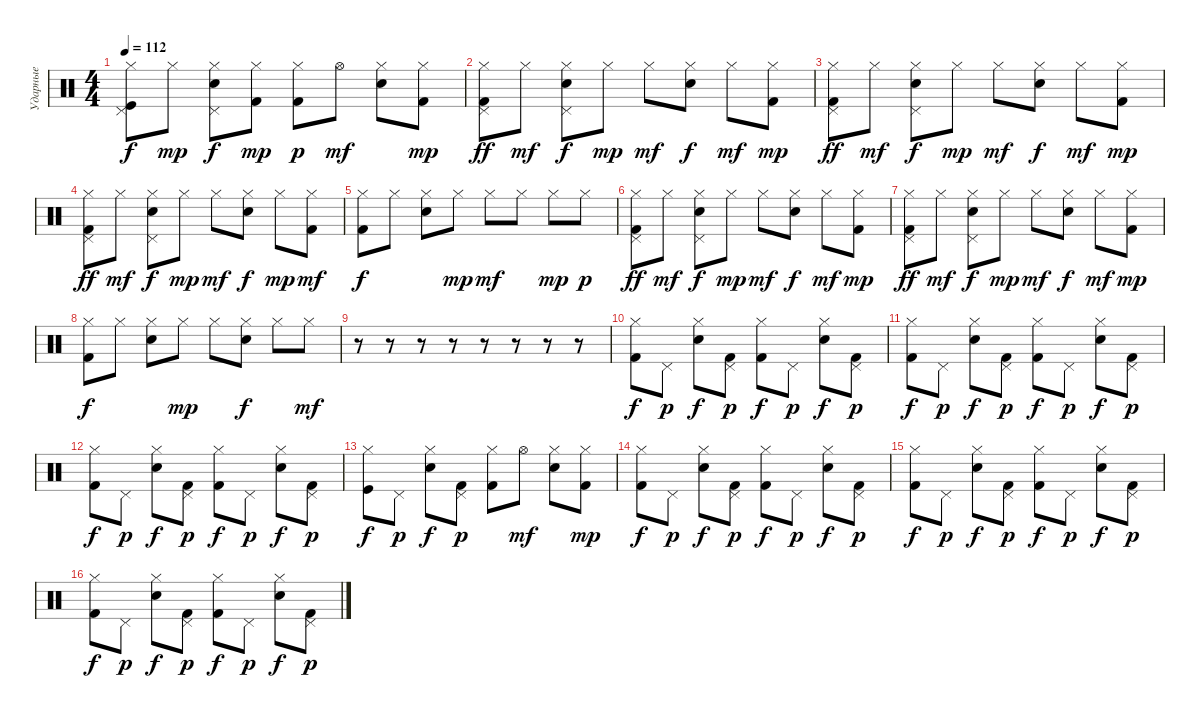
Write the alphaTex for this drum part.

\track ("Ударные" "Ударные") {instrument percussion}
\staff {score}
\articulation defaults
\ts (4 4)
\tempo 112
\clef neutral
\ks c
("Pedal Hi-Hat (hit)" "Hi-Hat (closed)" "Kick (hit)").8{dy f} "Hi-Hat (closed)".8{dy mp} ("Pedal Hi-Hat (hit)" "Hi-Hat (closed)" "Electric Snare (hit)").8{dy f} ("Hi-Hat (closed)" "Kick (hit) 2").8{dy mp} ("Hi-Hat (closed)" "Kick (hit) 2").8{dy p} "Hi-Hat (open)".8{dy mf} ("Hi-Hat (closed)" "Electric Snare (hit)").8 ("Hi-Hat (closed)" "Kick (hit) 2").8{dy mp} |
("Pedal Hi-Hat (hit)" "Hi-Hat (closed)" "Kick (hit) 2").8{dy ff} "Hi-Hat (closed)".8{dy mf} ("Pedal Hi-Hat (hit)" "Hi-Hat (closed)" "Electric Snare (hit)").8{dy f} "Hi-Hat (closed)".8{dy mp} "Hi-Hat (closed)".8{dy mf} ("Hi-Hat (closed)" "Electric Snare (hit)").8{dy f} "Hi-Hat (closed)".8{dy mf} ("Hi-Hat (closed)" "Kick (hit) 2").8{dy mp} |
("Pedal Hi-Hat (hit)" "Hi-Hat (closed)" "Kick (hit) 2").8{dy ff} "Hi-Hat (closed)".8{dy mf} ("Pedal Hi-Hat (hit)" "Hi-Hat (closed)" "Electric Snare (hit)").8{dy f} "Hi-Hat (closed)".8{dy mp} "Hi-Hat (closed)".8{dy mf} ("Hi-Hat (closed)" "Electric Snare (hit)").8{dy f} "Hi-Hat (closed)".8{dy mf} ("Hi-Hat (closed)" "Kick (hit) 2").8{dy mp} |
("Pedal Hi-Hat (hit)" "Hi-Hat (closed)" "Kick (hit) 2").8{dy ff} "Hi-Hat (closed)".8{dy mf} ("Pedal Hi-Hat (hit)" "Hi-Hat (closed)" "Electric Snare (hit)").8{dy f} "Hi-Hat (closed)".8{dy mp} "Hi-Hat (closed)".8{dy mf} ("Hi-Hat (closed)" "Electric Snare (hit)").8{dy f} "Hi-Hat (closed)".8{dy mp} ("Hi-Hat (closed)" "Kick (hit) 2").8{dy mf} |
("Hi-Hat (closed)" "Kick (hit) 2").8{dy f} "Hi-Hat (closed)".8 ("Hi-Hat (closed)" "Electric Snare (hit)").8 "Hi-Hat (closed)".8{dy mp} "Hi-Hat (closed)".8{dy mf} "Hi-Hat (closed)".8 "Hi-Hat (closed)".8{dy mp} "Hi-Hat (closed)".8{dy p} |
("Pedal Hi-Hat (hit)" "Hi-Hat (closed)" "Kick (hit) 2").8{dy ff} "Hi-Hat (closed)".8{dy mf} ("Pedal Hi-Hat (hit)" "Hi-Hat (closed)" "Electric Snare (hit)").8{dy f} "Hi-Hat (closed)".8{dy mp} "Hi-Hat (closed)".8{dy mf} ("Hi-Hat (closed)" "Electric Snare (hit)").8{dy f} "Hi-Hat (closed)".8{dy mf} ("Hi-Hat (closed)" "Kick (hit) 2").8{dy mp} |
("Pedal Hi-Hat (hit)" "Hi-Hat (closed)" "Kick (hit) 2").8{dy ff} "Hi-Hat (closed)".8{dy mf} ("Pedal Hi-Hat (hit)" "Hi-Hat (closed)" "Electric Snare (hit)").8{dy f} "Hi-Hat (closed)".8{dy mp} "Hi-Hat (closed)".8{dy mf} ("Hi-Hat (closed)" "Electric Snare (hit)").8{dy f} "Hi-Hat (closed)".8{dy mf} ("Hi-Hat (closed)" "Kick (hit) 2").8{dy mp} |
("Hi-Hat (closed)" "Kick (hit) 2").8{dy f} "Hi-Hat (closed)".8 ("Hi-Hat (closed)" "Electric Snare (hit)").8 "Hi-Hat (closed)".8{dy mp} "Hi-Hat (closed)".8 ("Hi-Hat (closed)" "Electric Snare (hit)").8{dy f} "Hi-Hat (closed)".8 "Hi-Hat (closed)".8{dy mf} |
r.8 r.8 r.8 r.8 r.8 r.8 r.8 r.8 |
("Hi-Hat (closed)" "Kick (hit) 2").8{dy f} "Pedal Hi-Hat (hit)".8{dy p} ("Hi-Hat (closed)" "Electric Snare (hit)").8{dy f} ("Pedal Hi-Hat (hit)" "Kick (hit) 2").8{dy p} ("Hi-Hat (closed)" "Kick (hit) 2").8{dy f} "Pedal Hi-Hat (hit)".8{dy p} ("Hi-Hat (closed)" "Electric Snare (hit)").8{dy f} ("Pedal Hi-Hat (hit)" "Kick (hit) 2").8{dy p} |
("Hi-Hat (closed)" "Kick (hit) 2").8{dy f} "Pedal Hi-Hat (hit)".8{dy p} ("Hi-Hat (closed)" "Electric Snare (hit)").8{dy f} ("Pedal Hi-Hat (hit)" "Kick (hit) 2").8{dy p} ("Hi-Hat (closed)" "Kick (hit) 2").8{dy f} "Pedal Hi-Hat (hit)".8{dy p} ("Hi-Hat (closed)" "Electric Snare (hit)").8{dy f} ("Pedal Hi-Hat (hit)" "Kick (hit) 2").8{dy p} |
("Hi-Hat (closed)" "Kick (hit) 2").8{dy f} "Pedal Hi-Hat (hit)".8{dy p} ("Hi-Hat (closed)" "Electric Snare (hit)").8{dy f} ("Pedal Hi-Hat (hit)" "Kick (hit) 2").8{dy p} ("Hi-Hat (closed)" "Kick (hit) 2").8{dy f} "Pedal Hi-Hat (hit)".8{dy p} ("Hi-Hat (closed)" "Electric Snare (hit)").8{dy f} ("Pedal Hi-Hat (hit)" "Kick (hit) 2").8{dy p} |
("Hi-Hat (closed)" "Kick (hit)").8{dy f} "Pedal Hi-Hat (hit)".8{dy p} ("Hi-Hat (closed)" "Electric Snare (hit)").8{dy f} ("Pedal Hi-Hat (hit)" "Kick (hit) 2").8{dy p} ("Hi-Hat (closed)" "Kick (hit) 2").8 "Hi-Hat (open)".8{dy mf} ("Hi-Hat (closed)" "Electric Snare (hit)").8 ("Hi-Hat (closed)" "Kick (hit) 2").8{dy mp} |
("Hi-Hat (closed)" "Kick (hit) 2").8{dy f} "Pedal Hi-Hat (hit)".8{dy p} ("Hi-Hat (closed)" "Electric Snare (hit)").8{dy f} ("Pedal Hi-Hat (hit)" "Kick (hit) 2").8{dy p} ("Hi-Hat (closed)" "Kick (hit) 2").8{dy f} "Pedal Hi-Hat (hit)".8{dy p} ("Hi-Hat (closed)" "Electric Snare (hit)").8{dy f} ("Pedal Hi-Hat (hit)" "Kick (hit) 2").8{dy p} |
("Hi-Hat (closed)" "Kick (hit) 2").8{dy f} "Pedal Hi-Hat (hit)".8{dy p} ("Hi-Hat (closed)" "Electric Snare (hit)").8{dy f} ("Pedal Hi-Hat (hit)" "Kick (hit) 2").8{dy p} ("Hi-Hat (closed)" "Kick (hit) 2").8{dy f} "Pedal Hi-Hat (hit)".8{dy p} ("Hi-Hat (closed)" "Electric Snare (hit)").8{dy f} ("Pedal Hi-Hat (hit)" "Kick (hit) 2").8{dy p} |
("Hi-Hat (closed)" "Kick (hit) 2").8{dy f} "Pedal Hi-Hat (hit)".8{dy p} ("Hi-Hat (closed)" "Electric Snare (hit)").8{dy f} ("Pedal Hi-Hat (hit)" "Kick (hit) 2").8{dy p} ("Hi-Hat (closed)" "Kick (hit) 2").8{dy f} "Pedal Hi-Hat (hit)".8{dy p} ("Hi-Hat (closed)" "Electric Snare (hit)").8{dy f} ("Pedal Hi-Hat (hit)" "Kick (hit) 2").8{dy p}
